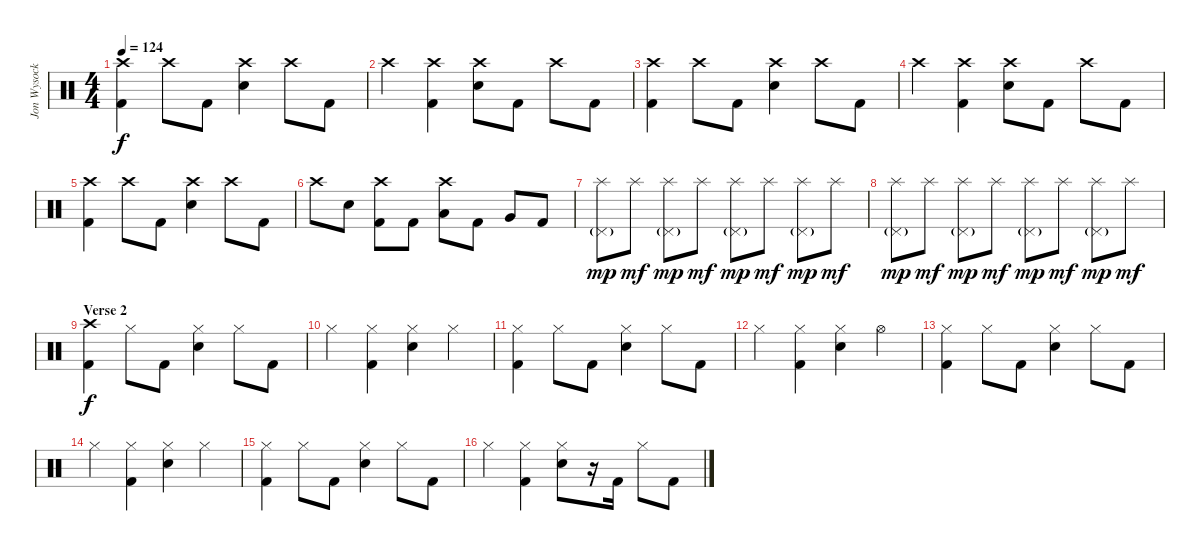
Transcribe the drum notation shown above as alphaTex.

\track ("Jon Wysocki - Drums" "Jon Wysock") {instrument percussion}
\staff {score}
\articulation defaults
\ts (4 4)
\tempo 124
\clef neutral
\ks c
("Crash high (hit)" "Kick (hit) 2").4{dy f} "Crash high (hit)".8 "Kick (hit) 2".8 ("Crash high (hit)" "Electric Snare (hit)").4 "Crash high (hit)".8 "Kick (hit) 2".8 |
"Crash high (hit)".4 ("Crash high (hit)" "Kick (hit) 2").4 ("Crash high (hit)" "Electric Snare (hit)").8 "Kick (hit) 2".8 "Crash high (hit)".8 "Kick (hit) 2".8 |
("Crash high (hit)" "Kick (hit) 2").4 "Crash high (hit)".8 "Kick (hit) 2".8 ("Crash high (hit)" "Electric Snare (hit)").4 "Crash high (hit)".8 "Kick (hit) 2".8 |
"Crash high (hit)".4 ("Crash high (hit)" "Kick (hit) 2").4 ("Crash high (hit)" "Electric Snare (hit)").8 "Kick (hit) 2".8 "Crash high (hit)".8 "Kick (hit) 2".8 |
("Crash high (hit)" "Kick (hit) 2").4 "Crash high (hit)".8 "Kick (hit) 2".8 ("Crash high (hit)" "Electric Snare (hit)").4 "Crash high (hit)".8 "Kick (hit) 2".8 |
"Crash high (hit)".8 "Electric Snare (hit)".8 ("Crash high (hit)" "Kick (hit) 2").8 "Kick (hit) 2".8 ("Crash high (hit)" "Low Tom (hit)").8 "Kick (hit) 2".8 "Very Low Tom (hit)".8 "Kick (hit) 2".8 |
("Splash (hit)" "Pedal Hi-Hat (hit)"{g}).8{dy mp} "Splash (hit)".8{dy mf} ("Splash (hit)" "Pedal Hi-Hat (hit)"{g}).8{dy mp} "Splash (hit)".8{dy mf} ("Splash (hit)" "Pedal Hi-Hat (hit)"{g}).8{dy mp} "Splash (hit)".8{dy mf} ("Splash (hit)" "Pedal Hi-Hat (hit)"{g}).8{dy mp} "Splash (hit)".8{dy mf} |
("Splash (hit)" "Pedal Hi-Hat (hit)"{g}).8{dy mp} "Splash (hit)".8{dy mf} ("Splash (hit)" "Pedal Hi-Hat (hit)"{g}).8{dy mp} "Splash (hit)".8{dy mf} ("Splash (hit)" "Pedal Hi-Hat (hit)"{g}).8{dy mp} "Splash (hit)".8{dy mf} ("Splash (hit)" "Pedal Hi-Hat (hit)"{g}).8{dy mp} "Splash (hit)".8{dy mf} |
\section ("" "Verse 2")
("Crash high (hit)" "Kick (hit) 2").4{dy f} "Hi-Hat (closed)".8 "Kick (hit) 2".8 ("Hi-Hat (closed)" "Electric Snare (hit)").4 "Hi-Hat (closed)".8 "Kick (hit) 2".8 |
"Hi-Hat (closed)".4 ("Hi-Hat (closed)" "Kick (hit) 2").4 ("Hi-Hat (closed)" "Electric Snare (hit)").4 "Hi-Hat (closed)".4 |
("Hi-Hat (closed)" "Kick (hit) 2").4 "Hi-Hat (closed)".8 "Kick (hit) 2".8 ("Hi-Hat (closed)" "Electric Snare (hit)").4 "Hi-Hat (closed)".8 "Kick (hit) 2".8 |
"Hi-Hat (closed)".4 ("Hi-Hat (closed)" "Kick (hit) 2").4 ("Hi-Hat (closed)" "Electric Snare (hit)").4 "Hi-Hat (open)".4 |
("Hi-Hat (closed)" "Kick (hit) 2").4 "Hi-Hat (closed)".8 "Kick (hit) 2".8 ("Hi-Hat (closed)" "Electric Snare (hit)").4 "Hi-Hat (closed)".8 "Kick (hit) 2".8 |
"Hi-Hat (closed)".4 ("Hi-Hat (closed)" "Kick (hit) 2").4 ("Hi-Hat (closed)" "Electric Snare (hit)").4 "Hi-Hat (closed)".4 |
("Hi-Hat (closed)" "Kick (hit) 2").4 "Hi-Hat (closed)".8 "Kick (hit) 2".8 ("Hi-Hat (closed)" "Electric Snare (hit)").4 "Hi-Hat (closed)".8 "Kick (hit) 2".8 |
"Hi-Hat (closed)".4 ("Hi-Hat (closed)" "Kick (hit) 2").4 ("Hi-Hat (closed)" "Electric Snare (hit)").8 r.16 "Kick (hit) 2".16 "Hi-Hat (closed)".8 "Kick (hit) 2".8
